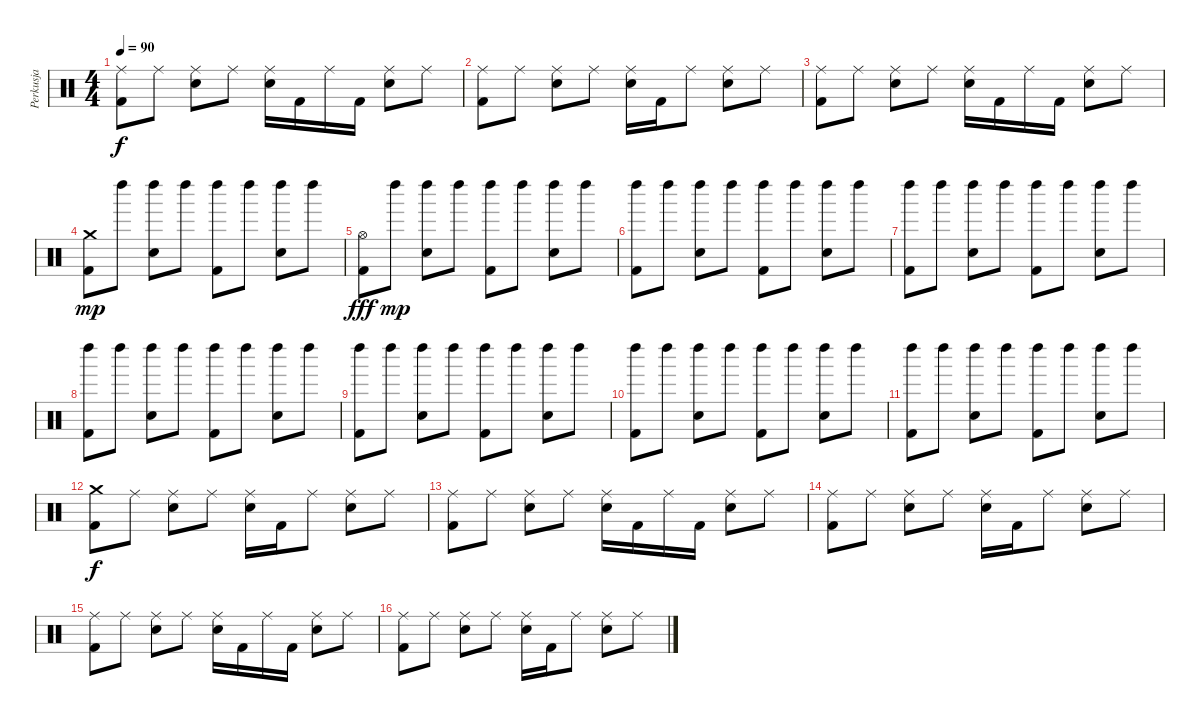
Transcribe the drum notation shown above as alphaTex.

\track ("Perkusja" "Perkusja") {instrument percussion}
\staff {score}
\articulation defaults
\ts (4 4)
\tempo 90
\clef neutral
\ks c
("Kick (hit) 2" "Ride (middle)").8{dy f} "Ride (middle)".8 ("Electric Snare (hit)" "Ride (middle)").8 "Ride (middle)".8 ("Electric Snare (hit)" "Ride (middle)").16 "Kick (hit) 2".16 "Ride (middle)".16 "Kick (hit) 2".16 ("Electric Snare (hit)" "Ride (middle)").8 "Ride (middle)".8 |
("Kick (hit) 2" "Ride (middle)").8 "Ride (middle)".8 ("Electric Snare (hit)" "Ride (middle)").8 "Ride (middle)".8 ("Electric Snare (hit)" "Ride (middle)").16 "Kick (hit) 2".16 "Ride (middle)".8 ("Electric Snare (hit)" "Ride (middle)").8 "Ride (middle)".8 |
("Kick (hit) 2" "Ride (middle)").8 "Ride (middle)".8 ("Electric Snare (hit)" "Ride (middle)").8 "Ride (middle)".8 ("Electric Snare (hit)" "Ride (middle)").16 "Kick (hit) 2".16 "Ride (middle)".16 "Kick (hit) 2".16 ("Electric Snare (hit)" "Ride (middle)").8 "Ride (middle)".8 |
("Kick (hit) 2" "Crash medium (hit)").8{dy mp} "Left Maraca (hit)".8 ("Electric Snare (hit)" "Left Maraca (hit)").8 "Left Maraca (hit)".8 ("Kick (hit) 2" "Left Maraca (hit)").8 "Left Maraca (hit)".8 ("Electric Snare (hit)" "Left Maraca (hit)").8 "Left Maraca (hit)".8 |
("Kick (hit) 2" "Hi-Hat (open)").8{dy fff} "Left Maraca (hit)".8{dy mp} ("Electric Snare (hit)" "Left Maraca (hit)").8 "Left Maraca (hit)".8 ("Kick (hit) 2" "Left Maraca (hit)").8 "Left Maraca (hit)".8 ("Electric Snare (hit)" "Left Maraca (hit)").8 "Left Maraca (hit)".8 |
("Kick (hit) 2" "Left Maraca (hit)").8 "Left Maraca (hit)".8 ("Electric Snare (hit)" "Left Maraca (hit)").8 "Left Maraca (hit)".8 ("Kick (hit) 2" "Left Maraca (hit)").8 "Left Maraca (hit)".8 ("Electric Snare (hit)" "Left Maraca (hit)").8 "Left Maraca (hit)".8 |
("Kick (hit) 2" "Left Maraca (hit)").8 "Left Maraca (hit)".8 ("Electric Snare (hit)" "Left Maraca (hit)").8 "Left Maraca (hit)".8 ("Kick (hit) 2" "Left Maraca (hit)").8 "Left Maraca (hit)".8 ("Electric Snare (hit)" "Left Maraca (hit)").8 "Left Maraca (hit)".8 |
("Kick (hit) 2" "Left Maraca (hit)").8 "Left Maraca (hit)".8 ("Electric Snare (hit)" "Left Maraca (hit)").8 "Left Maraca (hit)".8 ("Kick (hit) 2" "Left Maraca (hit)").8 "Left Maraca (hit)".8 ("Electric Snare (hit)" "Left Maraca (hit)").8 "Left Maraca (hit)".8 |
("Kick (hit) 2" "Left Maraca (hit)").8 "Left Maraca (hit)".8 ("Electric Snare (hit)" "Left Maraca (hit)").8 "Left Maraca (hit)".8 ("Kick (hit) 2" "Left Maraca (hit)").8 "Left Maraca (hit)".8 ("Electric Snare (hit)" "Left Maraca (hit)").8 "Left Maraca (hit)".8 |
("Kick (hit) 2" "Left Maraca (hit)").8 "Left Maraca (hit)".8 ("Electric Snare (hit)" "Left Maraca (hit)").8 "Left Maraca (hit)".8 ("Kick (hit) 2" "Left Maraca (hit)").8 "Left Maraca (hit)".8 ("Electric Snare (hit)" "Left Maraca (hit)").8 "Left Maraca (hit)".8 |
("Kick (hit) 2" "Left Maraca (hit)").8 "Left Maraca (hit)".8 ("Electric Snare (hit)" "Left Maraca (hit)").8 "Left Maraca (hit)".8 ("Kick (hit) 2" "Left Maraca (hit)").8 "Left Maraca (hit)".8 ("Electric Snare (hit)" "Left Maraca (hit)").8 "Left Maraca (hit)".8 |
("Kick (hit) 2" "Crash medium (hit)").8{dy f} "Ride (middle)".8 ("Electric Snare (hit)" "Ride (middle)").8 "Ride (middle)".8 ("Electric Snare (hit)" "Ride (middle)").16 "Kick (hit) 2".16 "Ride (middle)".8 ("Electric Snare (hit)" "Ride (middle)").8 "Ride (middle)".8 |
("Kick (hit) 2" "Ride (middle)").8 "Ride (middle)".8 ("Electric Snare (hit)" "Ride (middle)").8 "Ride (middle)".8 ("Electric Snare (hit)" "Ride (middle)").16 "Kick (hit) 2".16 "Ride (middle)".16 "Kick (hit) 2".16 ("Electric Snare (hit)" "Ride (middle)").8 "Ride (middle)".8 |
("Kick (hit) 2" "Ride (middle)").8 "Ride (middle)".8 ("Electric Snare (hit)" "Ride (middle)").8 "Ride (middle)".8 ("Electric Snare (hit)" "Ride (middle)").16 "Kick (hit) 2".16 "Ride (middle)".8 ("Electric Snare (hit)" "Ride (middle)").8 "Ride (middle)".8 |
("Kick (hit) 2" "Ride (middle)").8 "Ride (middle)".8 ("Electric Snare (hit)" "Ride (middle)").8 "Ride (middle)".8 ("Electric Snare (hit)" "Ride (middle)").16 "Kick (hit) 2".16 "Ride (middle)".16 "Kick (hit) 2".16 ("Electric Snare (hit)" "Ride (middle)").8 "Ride (middle)".8 |
("Kick (hit) 2" "Ride (middle)").8 "Ride (middle)".8 ("Electric Snare (hit)" "Ride (middle)").8 "Ride (middle)".8 ("Electric Snare (hit)" "Ride (middle)").16 "Kick (hit) 2".16 "Ride (middle)".8 ("Electric Snare (hit)" "Ride (middle)").8 "Ride (middle)".8
